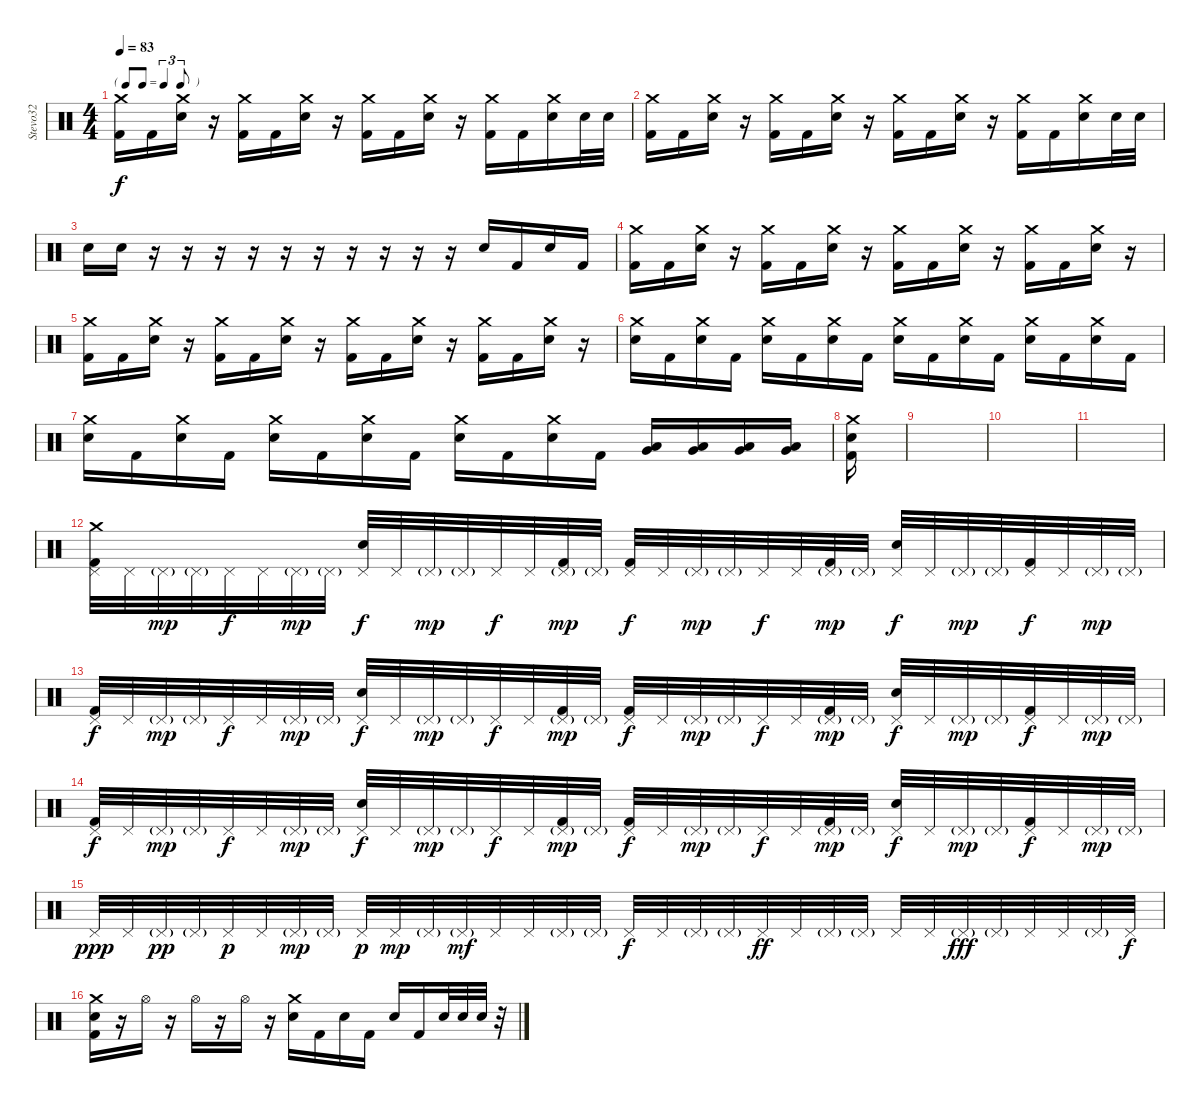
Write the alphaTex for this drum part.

\track ("Stevo32" "Stevo32") {instrument percussion}
\staff {score}
\articulation defaults
\ts (4 4)
\tf triplet8th
\tempo 83
\clef neutral
\ks c
("Crash medium (hit)" "Kick (hit) 2").16{dy f} "Kick (hit) 2".16 ("Crash medium (hit)" "Electric Snare (hit)").16 r.16 ("Crash medium (hit)" "Kick (hit) 2").16 "Kick (hit) 2".16 ("Crash medium (hit)" "Electric Snare (hit)").16 r.16 ("Crash medium (hit)" "Kick (hit) 2").16 "Kick (hit) 2".16 ("Crash medium (hit)" "Electric Snare (hit)").16 r.16 ("Crash medium (hit)" "Kick (hit) 2").16 "Kick (hit) 2".16 ("Crash medium (hit)" "Electric Snare (hit)").16 "Electric Snare (hit)".32 "Electric Snare (hit)".32 |
("Crash medium (hit)" "Kick (hit) 2").16 "Kick (hit) 2".16 ("Crash medium (hit)" "Electric Snare (hit)").16 r.16 ("Crash medium (hit)" "Kick (hit) 2").16 "Kick (hit) 2".16 ("Crash medium (hit)" "Electric Snare (hit)").16 r.16 ("Crash medium (hit)" "Kick (hit) 2").16 "Kick (hit) 2".16 ("Crash medium (hit)" "Electric Snare (hit)").16 r.16 ("Crash medium (hit)" "Kick (hit) 2").16 "Kick (hit) 2".16 ("Crash medium (hit)" "Electric Snare (hit)").16 "Electric Snare (hit)".32 "Electric Snare (hit)".32 |
"Electric Snare (hit)".16 "Electric Snare (hit)".16 r.16 r.16 r.16 r.16 r.16 r.16 r.16 r.16 r.16 r.16 "Electric Snare (hit)".16 "Kick (hit) 2".16 "Electric Snare (hit)".16 "Kick (hit) 2".16 |
("Crash medium (hit)" "Kick (hit) 2").16 "Kick (hit) 2".16 ("Crash medium (hit)" "Electric Snare (hit)").16 r.16 ("Crash medium (hit)" "Kick (hit) 2").16 "Kick (hit) 2".16 ("Crash medium (hit)" "Electric Snare (hit)").16 r.16 ("Crash medium (hit)" "Kick (hit) 2").16 "Kick (hit) 2".16 ("Crash medium (hit)" "Electric Snare (hit)").16 r.16 ("Crash medium (hit)" "Kick (hit) 2").16 "Kick (hit) 2".16 ("Crash medium (hit)" "Electric Snare (hit)").16 r.16 |
("Crash medium (hit)" "Kick (hit) 2").16 "Kick (hit) 2".16 ("Crash medium (hit)" "Electric Snare (hit)").16 r.16 ("Crash medium (hit)" "Kick (hit) 2").16 "Kick (hit) 2".16 ("Crash medium (hit)" "Electric Snare (hit)").16 r.16 ("Crash medium (hit)" "Kick (hit) 2").16 "Kick (hit) 2".16 ("Crash medium (hit)" "Electric Snare (hit)").16 r.16 ("Crash medium (hit)" "Kick (hit) 2").16 "Kick (hit) 2".16 ("Crash medium (hit)" "Electric Snare (hit)").16 r.16 |
("Crash medium (hit)" "Electric Snare (hit)").16 "Kick (hit) 2".16 ("Crash medium (hit)" "Electric Snare (hit)").16 "Kick (hit) 2".16 ("Crash medium (hit)" "Electric Snare (hit)").16 "Kick (hit) 2".16 ("Crash medium (hit)" "Electric Snare (hit)").16 "Kick (hit) 2".16 ("Crash medium (hit)" "Electric Snare (hit)").16 "Kick (hit) 2".16 ("Crash medium (hit)" "Electric Snare (hit)").16 "Kick (hit) 2".16 ("Crash medium (hit)" "Electric Snare (hit)").16 "Kick (hit) 2".16 ("Crash medium (hit)" "Electric Snare (hit)").16 "Kick (hit) 2".16 |
("Crash medium (hit)" "Electric Snare (hit)").16 "Kick (hit) 2".16 ("Crash medium (hit)" "Electric Snare (hit)").16 "Kick (hit) 2".16 ("Crash medium (hit)" "Electric Snare (hit)").16 "Kick (hit) 2".16 ("Crash medium (hit)" "Electric Snare (hit)").16 "Kick (hit) 2".16 ("Crash medium (hit)" "Electric Snare (hit)").16 "Kick (hit) 2".16 ("Crash medium (hit)" "Electric Snare (hit)").16 "Kick (hit) 2".16 ("Low Tom (hit)" "Very Low Tom (hit)").16 ("Low Tom (hit)" "Very Low Tom (hit)").16 ("Low Tom (hit)" "Very Low Tom (hit)").16 ("Low Tom (hit)" "Very Low Tom (hit)").16 |
("Kick (hit) 2" "Crash medium (hit)" "Electric Snare (hit)").16 |
|
|
|
("Crash medium (hit)" "Pedal Hi-Hat (hit)" "Kick (hit) 2").32 "Pedal Hi-Hat (hit)".32 "Pedal Hi-Hat (hit)"{g}.32{dy mp} "Pedal Hi-Hat (hit)"{g}.32 "Pedal Hi-Hat (hit)".32{dy f} "Pedal Hi-Hat (hit)".32 "Pedal Hi-Hat (hit)"{g}.32{dy mp} "Pedal Hi-Hat (hit)"{g}.32 ("Pedal Hi-Hat (hit)" "Electric Snare (hit)").32{dy f} "Pedal Hi-Hat (hit)".32 "Pedal Hi-Hat (hit)"{g}.32{dy mp} "Pedal Hi-Hat (hit)"{g}.32 "Pedal Hi-Hat (hit)".32{dy f} "Pedal Hi-Hat (hit)".32 ("Pedal Hi-Hat (hit)"{g} "Kick (hit) 2").32{dy mp} "Pedal Hi-Hat (hit)"{g}.32 ("Pedal Hi-Hat (hit)" "Kick (hit) 2").32{dy f} "Pedal Hi-Hat (hit)".32 "Pedal Hi-Hat (hit)"{g}.32{dy mp} "Pedal Hi-Hat (hit)"{g}.32 "Pedal Hi-Hat (hit)".32{dy f} "Pedal Hi-Hat (hit)".32 ("Pedal Hi-Hat (hit)"{g} "Kick (hit) 2").32{dy mp} "Pedal Hi-Hat (hit)"{g}.32 ("Pedal Hi-Hat (hit)" "Electric Snare (hit)").32{dy f} "Pedal Hi-Hat (hit)".32 "Pedal Hi-Hat (hit)"{g}.32{dy mp} "Pedal Hi-Hat (hit)"{g}.32 ("Pedal Hi-Hat (hit)" "Kick (hit) 2").32{dy f} "Pedal Hi-Hat (hit)".32 "Pedal Hi-Hat (hit)"{g}.32{dy mp} "Pedal Hi-Hat (hit)"{g}.32 |
("Pedal Hi-Hat (hit)" "Kick (hit) 2").32{dy f} "Pedal Hi-Hat (hit)".32 "Pedal Hi-Hat (hit)"{g}.32{dy mp} "Pedal Hi-Hat (hit)"{g}.32 "Pedal Hi-Hat (hit)".32{dy f} "Pedal Hi-Hat (hit)".32 "Pedal Hi-Hat (hit)"{g}.32{dy mp} "Pedal Hi-Hat (hit)"{g}.32 ("Pedal Hi-Hat (hit)" "Electric Snare (hit)").32{dy f} "Pedal Hi-Hat (hit)".32 "Pedal Hi-Hat (hit)"{g}.32{dy mp} "Pedal Hi-Hat (hit)"{g}.32 "Pedal Hi-Hat (hit)".32{dy f} "Pedal Hi-Hat (hit)".32 ("Pedal Hi-Hat (hit)"{g} "Kick (hit) 2").32{dy mp} "Pedal Hi-Hat (hit)"{g}.32 ("Pedal Hi-Hat (hit)" "Kick (hit) 2").32{dy f} "Pedal Hi-Hat (hit)".32 "Pedal Hi-Hat (hit)"{g}.32{dy mp} "Pedal Hi-Hat (hit)"{g}.32 "Pedal Hi-Hat (hit)".32{dy f} "Pedal Hi-Hat (hit)".32 ("Pedal Hi-Hat (hit)"{g} "Kick (hit) 2").32{dy mp} "Pedal Hi-Hat (hit)"{g}.32 ("Pedal Hi-Hat (hit)" "Electric Snare (hit)").32{dy f} "Pedal Hi-Hat (hit)".32 "Pedal Hi-Hat (hit)"{g}.32{dy mp} "Pedal Hi-Hat (hit)"{g}.32 ("Pedal Hi-Hat (hit)" "Kick (hit) 2").32{dy f} "Pedal Hi-Hat (hit)".32 "Pedal Hi-Hat (hit)"{g}.32{dy mp} "Pedal Hi-Hat (hit)"{g}.32 |
("Pedal Hi-Hat (hit)" "Kick (hit) 2").32{dy f} "Pedal Hi-Hat (hit)".32 "Pedal Hi-Hat (hit)"{g}.32{dy mp} "Pedal Hi-Hat (hit)"{g}.32 "Pedal Hi-Hat (hit)".32{dy f} "Pedal Hi-Hat (hit)".32 "Pedal Hi-Hat (hit)"{g}.32{dy mp} "Pedal Hi-Hat (hit)"{g}.32 ("Pedal Hi-Hat (hit)" "Electric Snare (hit)").32{dy f} "Pedal Hi-Hat (hit)".32 "Pedal Hi-Hat (hit)"{g}.32{dy mp} "Pedal Hi-Hat (hit)"{g}.32 "Pedal Hi-Hat (hit)".32{dy f} "Pedal Hi-Hat (hit)".32 ("Pedal Hi-Hat (hit)"{g} "Kick (hit) 2").32{dy mp} "Pedal Hi-Hat (hit)"{g}.32 ("Pedal Hi-Hat (hit)" "Kick (hit) 2").32{dy f} "Pedal Hi-Hat (hit)".32 "Pedal Hi-Hat (hit)"{g}.32{dy mp} "Pedal Hi-Hat (hit)"{g}.32 "Pedal Hi-Hat (hit)".32{dy f} "Pedal Hi-Hat (hit)".32 ("Pedal Hi-Hat (hit)"{g} "Kick (hit) 2").32{dy mp} "Pedal Hi-Hat (hit)"{g}.32 ("Pedal Hi-Hat (hit)" "Electric Snare (hit)").32{dy f} "Pedal Hi-Hat (hit)".32 "Pedal Hi-Hat (hit)"{g}.32{dy mp} "Pedal Hi-Hat (hit)"{g}.32 ("Pedal Hi-Hat (hit)" "Kick (hit) 2").32{dy f} "Pedal Hi-Hat (hit)".32 "Pedal Hi-Hat (hit)"{g}.32{dy mp} "Pedal Hi-Hat (hit)"{g}.32 |
"Pedal Hi-Hat (hit)".32{dy ppp} "Pedal Hi-Hat (hit)".32 "Pedal Hi-Hat (hit)"{g}.32{dy pp} "Pedal Hi-Hat (hit)"{g}.32 "Pedal Hi-Hat (hit)".32{dy p} "Pedal Hi-Hat (hit)".32 "Pedal Hi-Hat (hit)"{g}.32{dy mp} "Pedal Hi-Hat (hit)"{g}.32 "Pedal Hi-Hat (hit)".32{dy p} "Pedal Hi-Hat (hit)".32{dy mp} "Pedal Hi-Hat (hit)"{g}.32 "Pedal Hi-Hat (hit)"{g}.32{dy mf} "Pedal Hi-Hat (hit)".32 "Pedal Hi-Hat (hit)".32 "Pedal Hi-Hat (hit)"{g}.32 "Pedal Hi-Hat (hit)"{g}.32 "Pedal Hi-Hat (hit)".32{dy f} "Pedal Hi-Hat (hit)".32 "Pedal Hi-Hat (hit)"{g}.32 "Pedal Hi-Hat (hit)"{g}.32 "Pedal Hi-Hat (hit)".32{dy ff} "Pedal Hi-Hat (hit)".32 "Pedal Hi-Hat (hit)"{g}.32 "Pedal Hi-Hat (hit)"{g}.32 "Pedal Hi-Hat (hit)".32 "Pedal Hi-Hat (hit)".32 "Pedal Hi-Hat (hit)"{g}.32{dy fff} "Pedal Hi-Hat (hit)"{g}.32 "Pedal Hi-Hat (hit)".32 "Pedal Hi-Hat (hit)".32 "Pedal Hi-Hat (hit)"{g}.32 "Pedal Hi-Hat (hit)".32{dy f} |
("Crash medium (hit)" "Electric Snare (hit)" "Kick (hit) 2").16 r.16 "Hi-Hat (open)".16 r.16 "Hi-Hat (open)".16 r.16 "Hi-Hat (open)".16 r.16 ("Crash medium (hit)" "Electric Snare (hit)").16 "Kick (hit) 2".16 "Electric Snare (hit)".16 "Kick (hit) 2".16 "Electric Snare (hit)".16 "Kick (hit) 2".16 "Electric Snare (hit)".32 "Electric Snare (hit)".32 "Electric Snare (hit)".32 r.32
